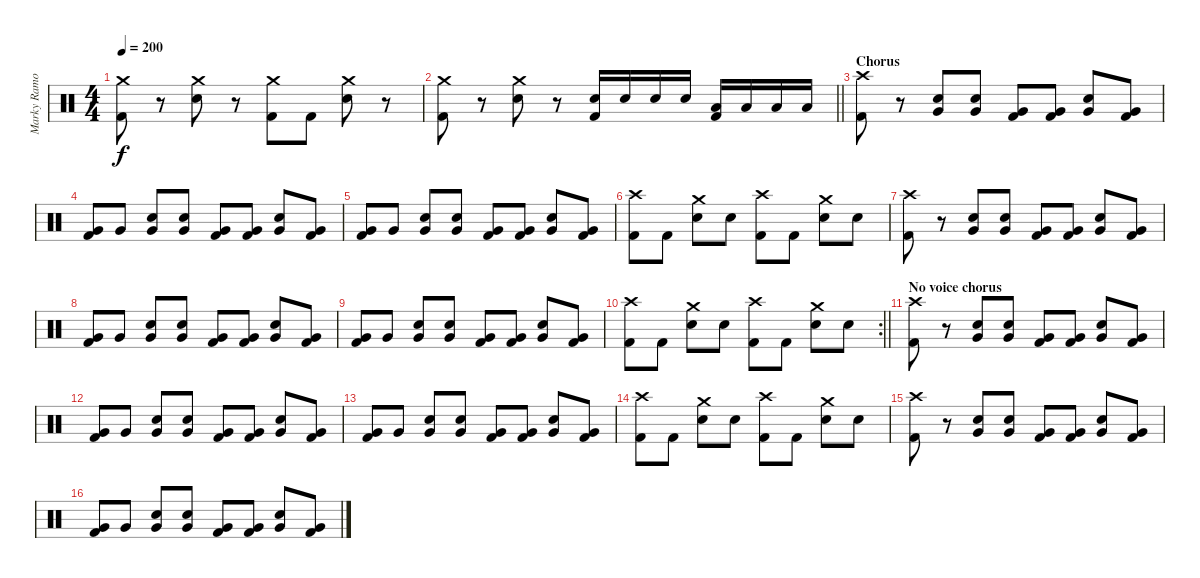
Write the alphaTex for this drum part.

\track ("Marky Ramone" "Marky Ramo") {instrument percussion}
\staff {score}
\articulation defaults
\ts (4 4)
\tempo 200
\clef neutral
\ks c
("Crash medium (hit)" "Kick (hit) 2").8{dy f} r.8 ("Crash medium (hit)" "Electric Snare (hit)").8 r.8 ("Crash medium (hit)" "Kick (hit) 2").8 "Kick (hit) 2".8 ("Crash medium (hit)" "Electric Snare (hit)").8 r.8 |
\barLineRight lightlight
("Crash medium (hit)" "Kick (hit) 2").8 r.8 ("Crash medium (hit)" "Electric Snare (hit)").8 r.8 ("Electric Snare (hit)" "Kick (hit) 2").16 "Electric Snare (hit)".16 "Electric Snare (hit)".16 "Electric Snare (hit)".16 ("Low Floor Tom (hit)" "Kick (hit) 2").16 "Low Floor Tom (hit)".16 "Low Floor Tom (hit)".16 "Low Floor Tom (hit)".16 |
\section ("" "Chorus")
("Crash high (hit)" "Kick (hit) 2").8 r.8 ("Very Low Tom (hit)" "Electric Snare (hit)").8 ("Very Low Tom (hit)" "Electric Snare (hit)").8 ("Very Low Tom (hit)" "Kick (hit) 2").8 ("Very Low Tom (hit)" "Kick (hit) 2").8 ("Very Low Tom (hit)" "Electric Snare (hit)").8 ("Very Low Tom (hit)" "Kick (hit) 2").8 |
("Very Low Tom (hit)" "Kick (hit) 2").8 "Very Low Tom (hit)".8 ("Very Low Tom (hit)" "Electric Snare (hit)").8 ("Very Low Tom (hit)" "Electric Snare (hit)").8 ("Very Low Tom (hit)" "Kick (hit) 2").8 ("Very Low Tom (hit)" "Kick (hit) 2").8 ("Very Low Tom (hit)" "Electric Snare (hit)").8 ("Very Low Tom (hit)" "Kick (hit) 2").8 |
("Very Low Tom (hit)" "Kick (hit) 2").8 "Very Low Tom (hit)".8 ("Very Low Tom (hit)" "Electric Snare (hit)").8 ("Very Low Tom (hit)" "Electric Snare (hit)").8 ("Very Low Tom (hit)" "Kick (hit) 2").8 ("Very Low Tom (hit)" "Kick (hit) 2").8 ("Very Low Tom (hit)" "Electric Snare (hit)").8 ("Very Low Tom (hit)" "Kick (hit) 2").8 |
("Crash high (hit)" "Kick (hit) 2").8 "Kick (hit) 2".8 ("Crash medium (hit)" "Electric Snare (hit)").8 "Electric Snare (hit)".8 ("Crash high (hit)" "Kick (hit) 2").8 "Kick (hit) 2".8 ("Crash medium (hit)" "Electric Snare (hit)").8 "Electric Snare (hit)".8 |
("Crash high (hit)" "Kick (hit) 2").8 r.8 ("Very Low Tom (hit)" "Electric Snare (hit)").8 ("Very Low Tom (hit)" "Electric Snare (hit)").8 ("Very Low Tom (hit)" "Kick (hit) 2").8 ("Very Low Tom (hit)" "Kick (hit) 2").8 ("Very Low Tom (hit)" "Electric Snare (hit)").8 ("Very Low Tom (hit)" "Kick (hit) 2").8 |
("Very Low Tom (hit)" "Kick (hit) 2").8 "Very Low Tom (hit)".8 ("Very Low Tom (hit)" "Electric Snare (hit)").8 ("Very Low Tom (hit)" "Electric Snare (hit)").8 ("Very Low Tom (hit)" "Kick (hit) 2").8 ("Very Low Tom (hit)" "Kick (hit) 2").8 ("Very Low Tom (hit)" "Electric Snare (hit)").8 ("Very Low Tom (hit)" "Kick (hit) 2").8 |
("Very Low Tom (hit)" "Kick (hit) 2").8 "Very Low Tom (hit)".8 ("Very Low Tom (hit)" "Electric Snare (hit)").8 ("Very Low Tom (hit)" "Electric Snare (hit)").8 ("Very Low Tom (hit)" "Kick (hit) 2").8 ("Very Low Tom (hit)" "Kick (hit) 2").8 ("Very Low Tom (hit)" "Electric Snare (hit)").8 ("Very Low Tom (hit)" "Kick (hit) 2").8 |
\rc 2
\barLineRight lightlight
("Crash high (hit)" "Kick (hit) 2").8 "Kick (hit) 2".8 ("Crash medium (hit)" "Electric Snare (hit)").8 "Electric Snare (hit)".8 ("Crash high (hit)" "Kick (hit) 2").8 "Kick (hit) 2".8 ("Crash medium (hit)" "Electric Snare (hit)").8 "Electric Snare (hit)".8 |
\section ("" "No voice chorus")
("Crash high (hit)" "Kick (hit) 2").8 r.8 ("Very Low Tom (hit)" "Electric Snare (hit)").8 ("Very Low Tom (hit)" "Electric Snare (hit)").8 ("Very Low Tom (hit)" "Kick (hit) 2").8 ("Very Low Tom (hit)" "Kick (hit) 2").8 ("Very Low Tom (hit)" "Electric Snare (hit)").8 ("Very Low Tom (hit)" "Kick (hit) 2").8 |
("Very Low Tom (hit)" "Kick (hit) 2").8 "Very Low Tom (hit)".8 ("Very Low Tom (hit)" "Electric Snare (hit)").8 ("Very Low Tom (hit)" "Electric Snare (hit)").8 ("Very Low Tom (hit)" "Kick (hit) 2").8 ("Very Low Tom (hit)" "Kick (hit) 2").8 ("Very Low Tom (hit)" "Electric Snare (hit)").8 ("Very Low Tom (hit)" "Kick (hit) 2").8 |
("Very Low Tom (hit)" "Kick (hit) 2").8 "Very Low Tom (hit)".8 ("Very Low Tom (hit)" "Electric Snare (hit)").8 ("Very Low Tom (hit)" "Electric Snare (hit)").8 ("Very Low Tom (hit)" "Kick (hit) 2").8 ("Very Low Tom (hit)" "Kick (hit) 2").8 ("Very Low Tom (hit)" "Electric Snare (hit)").8 ("Very Low Tom (hit)" "Kick (hit) 2").8 |
("Crash high (hit)" "Kick (hit) 2").8 "Kick (hit) 2".8 ("Crash medium (hit)" "Electric Snare (hit)").8 "Electric Snare (hit)".8 ("Crash high (hit)" "Kick (hit) 2").8 "Kick (hit) 2".8 ("Crash medium (hit)" "Electric Snare (hit)").8 "Electric Snare (hit)".8 |
("Crash high (hit)" "Kick (hit) 2").8 r.8 ("Very Low Tom (hit)" "Electric Snare (hit)").8 ("Very Low Tom (hit)" "Electric Snare (hit)").8 ("Very Low Tom (hit)" "Kick (hit) 2").8 ("Very Low Tom (hit)" "Kick (hit) 2").8 ("Very Low Tom (hit)" "Electric Snare (hit)").8 ("Very Low Tom (hit)" "Kick (hit) 2").8 |
("Very Low Tom (hit)" "Kick (hit) 2").8 "Very Low Tom (hit)".8 ("Very Low Tom (hit)" "Electric Snare (hit)").8 ("Very Low Tom (hit)" "Electric Snare (hit)").8 ("Very Low Tom (hit)" "Kick (hit) 2").8 ("Very Low Tom (hit)" "Kick (hit) 2").8 ("Very Low Tom (hit)" "Electric Snare (hit)").8 ("Very Low Tom (hit)" "Kick (hit) 2").8
